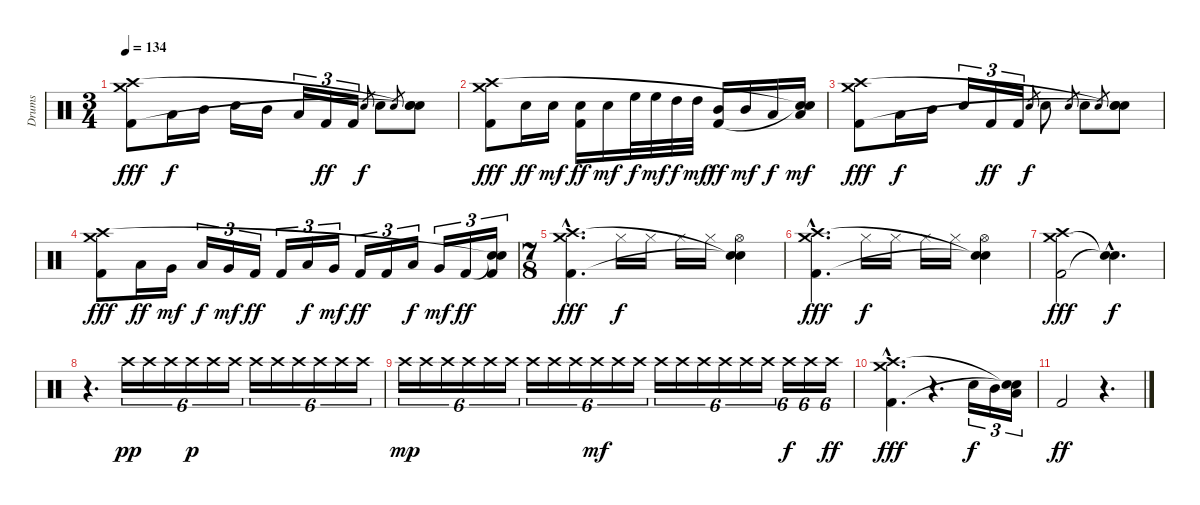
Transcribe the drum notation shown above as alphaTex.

\track ("Drums" "Drums") {instrument percussion}
\staff {score}
\articulation defaults
\ts (3 4)
\tempo 134
\clef neutral
\ks c
("Crash medium (hit)" "Kick (hit) 2" "Crash high (hit)").8{dy fff} "Low Tom (hit)".16{dy f} "Mid Tom (hit)".16 "Snare (hit) 2".16 "Mid Tom (hit)".16 "Low Tom (hit)".16{tu (3 2)} "Kick (hit) 2".16{tu (3 2) dy ff} "Kick (hit) 2".16{tu (3 2)} "Snare (hit) 2".8{gr dy f} "Snare (hit) 2".8 "Snare (hit) 2".8{gr} ("Snare (hit) 2" "Snare (hit)"{t} "Snare (hit)"{t}).8 |
("Crash medium (hit)" "Kick (hit) 2" "Crash high (hit)").8{dy fff} "Snare (hit) 2".16{dy ff} "Snare (hit) 2".16{dy mf} ("Snare (hit) 2" "Kick (hit) 2").16{dy ff} "Snare (hit) 2".16{dy mf} "High Floor Tom (hit)".32{dy f} "High Floor Tom (hit)".32{dy mf} "High Tom (hit)".32{dy f} "High Tom (hit)".32{dy mf} ("Mid Tom (hit)" "Kick (hit) 2").16{dy ff} "Mid Tom (hit)".16{dy mf} "Low Tom (hit)".16{dy f} ("Low Tom (hit)" "Snare (hit)"{t} "Snare (hit)"{t}).16{dy mf} |
("Crash medium (hit)" "Kick (hit) 2" "Crash high (hit)").8{dy fff} "Low Tom (hit)".16{dy f} "Mid Tom (hit)".16 "Snare (hit) 2".16{tu (3 2)} "Kick (hit) 2".16{tu (3 2) dy ff} "Kick (hit) 2".16{tu (3 2)} "Snare (hit) 2".8{gr dy f} "Snare (hit) 2".8 "Snare (hit) 2".8{gr} "Snare (hit) 2".8 "Snare (hit) 2"{sl}.8{gr} ("Snare (hit) 2" "Snare (hit)"{t} "Snare (hit)"{t}).8 |
("Crash medium (hit)" "Kick (hit) 2" "Crash high (hit)").8{dy fff} "Low Floor Tom (hit)".16{dy ff} "Very Low Tom (hit)".16{dy mf} "Low Floor Tom (hit)".16{tu (3 2) dy f} "Very Low Tom (hit)".16{tu (3 2) dy mf} "Kick (hit) 2".16{tu (3 2) dy ff} "Kick (hit) 2".16{tu (3 2)} "Low Floor Tom (hit)".16{tu (3 2) dy f} "Very Low Tom (hit)".16{tu (3 2) dy mf} "Kick (hit) 2".16{tu (3 2) dy ff} "Kick (hit) 2".16{tu (3 2)} "Low Floor Tom (hit)".16{tu (3 2) dy f} "Very Low Tom (hit)".16{tu (3 2) dy mf} "Kick (hit) 2".16{tu (3 2) dy ff} ("Snare (hit)"{t} "Kick (hit) 2" "Snare (hit)"{t}).16{tu (3 2)} |
\ts (7 8)
("Crash medium (hit)"{hac} "Kick (hit) 2"{hac} "Crash high (hit)"{hac}).4{d dy fff} "Hi-Hat (closed)".16{dy f} "Hi-Hat (closed)".16 "Hi-Hat (closed)".16 "Hi-Hat (closed)".16 ("Hi-Hat (open)" "Snare (hit)"{t} "Snare (hit)"{t}).4 |
("Crash medium (hit)"{hac} "Kick (hit) 2"{hac} "Crash high (hit)"{hac}).4{d dy fff} "Hi-Hat (closed)".16{dy f} "Hi-Hat (closed)".16 "Hi-Hat (closed)".16 "Hi-Hat (closed)".16 ("Hi-Hat (open)" "Snare (hit)"{t} "Snare (hit)"{t}).4 |
("Crash medium (hit)" "Kick (hit) 2" "Crash high (hit)").2{dy fff} ("Snare (hit)"{hac t} "Snare (hit)"{hac t}).4{d dy f} |
r.4{d} "Crash high (hit)".16{tu (6 4) dy pp} "Crash high (hit)".16{tu (6 4)} "Crash high (hit)".16{tu (6 4)} "Crash high (hit)".16{tu (6 4) dy p} "Crash high (hit)".16{tu (6 4)} "Crash high (hit)".16{tu (6 4)} "Crash high (hit)".16{tu (6 4)} "Crash high (hit)".16{tu (6 4)} "Crash high (hit)".16{tu (6 4)} "Crash high (hit)".16{tu (6 4)} "Crash high (hit)".16{tu (6 4)} "Crash high (hit)".16{tu (6 4)} |
"Crash high (hit)".16{tu (6 4) dy mp} "Crash high (hit)".16{tu (6 4)} "Crash high (hit)".16{tu (6 4)} "Crash high (hit)".16{tu (6 4)} "Crash high (hit)".16{tu (6 4)} "Crash high (hit)".16{tu (6 4)} "Crash high (hit)".16{tu (6 4)} "Crash high (hit)".16{tu (6 4)} "Crash high (hit)".16{tu (6 4)} "Crash high (hit)".16{tu (6 4) dy mf} "Crash high (hit)".16{tu (6 4)} "Crash high (hit)".16{tu (6 4)} "Crash high (hit)".16{tu (6 4)} "Crash high (hit)".16{tu (6 4)} "Crash high (hit)".16{tu (6 4)} "Crash high (hit)".16{tu (6 4)} "Crash high (hit)".16{tu (6 4)} "Crash high (hit)".16{tu (6 4)} "Crash high (hit)".16{tu (6 4) dy f} "Crash high (hit)".16{tu (6 4)} "Crash high (hit)".16{tu (6 4) dy ff} |
("Crash medium (hit)"{hac} "Kick (hit) 2"{hac} "Crash high (hit)"{hac}).4{d dy fff} r.4{d} "Snare (hit) 2".16{tu (3 2) dy f} "Mid Tom (hit)".16{tu (3 2)} ("Low Floor Tom (hit)" "Snare (hit)"{t} "Snare (hit)"{t}).16{tu (3 2)} |
"Kick (hit) 2".2{dy ff} r.4{d}
